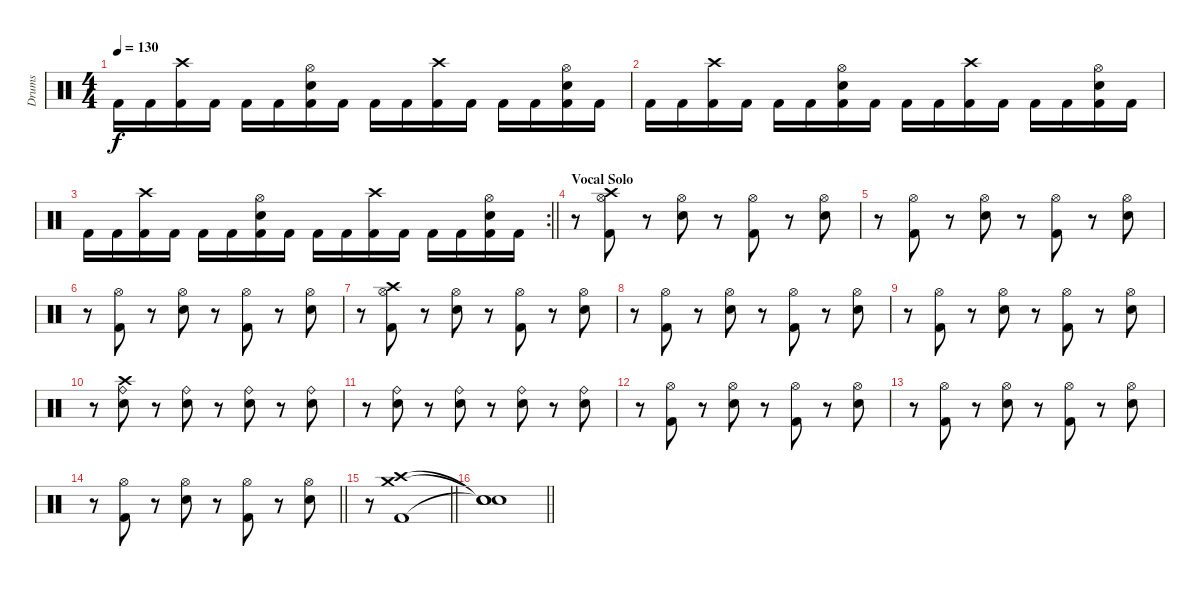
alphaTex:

\track ("Drums" "Drums") {instrument percussion}
\staff {score}
\articulation defaults
\ts (4 4)
\tempo 130
\clef neutral
\ks c "Kick (hit) 2".16{dy f} "Kick (hit) 2".16
("Crash high (hit)" "Kick (hit) 2").16 "Kick (hit) 2".16 "Kick (hit) 2".16 "Kick (hit) 2".16 ("Electric Snare (hit)" "Hi-Hat (open)" "Kick (hit) 2").16 "Kick (hit) 2".16 "Kick (hit) 2".16 "Kick (hit) 2".16 ("Crash high (hit)" "Kick (hit) 2").16 "Kick (hit) 2".16 "Kick (hit) 2".16 "Kick (hit) 2".16 ("Electric Snare (hit)" "Hi-Hat (open)" "Kick (hit) 2").16 "Kick (hit) 2".16 |
"Kick (hit) 2".16 "Kick (hit) 2".16 ("Crash high (hit)" "Kick (hit) 2").16 "Kick (hit) 2".16 "Kick (hit) 2".16 "Kick (hit) 2".16 ("Electric Snare (hit)" "Hi-Hat (open)" "Kick (hit) 2").16 "Kick (hit) 2".16 "Kick (hit) 2".16 "Kick (hit) 2".16 ("Crash high (hit)" "Kick (hit) 2").16 "Kick (hit) 2".16 "Kick (hit) 2".16 "Kick (hit) 2".16 ("Electric Snare (hit)" "Hi-Hat (open)" "Kick (hit) 2").16 "Kick (hit) 2".16 |
\rc 2
\barLineRight lightlight "Kick (hit) 2".16 "Kick (hit) 2".16
("Crash high (hit)" "Kick (hit) 2").16 "Kick (hit) 2".16 "Kick (hit) 2".16 "Kick (hit) 2".16 ("Electric Snare (hit)" "Hi-Hat (open)" "Kick (hit) 2").16 "Kick (hit) 2".16 "Kick (hit) 2".16 "Kick (hit) 2".16 ("Crash high (hit)" "Kick (hit) 2").16 "Kick (hit) 2".16 "Kick (hit) 2".16 "Kick (hit) 2".16 ("Electric Snare (hit)" "Hi-Hat (open)" "Kick (hit) 2").16 "Kick (hit) 2".16 |
\section ("" "Vocal Solo")
r.8 ("Kick (hit) 2" "Hi-Hat (open)" "Crash high (hit)").8 r.8 ("Snare (hit) 2" "Hi-Hat (open)").8 r.8 ("Kick (hit) 2" "Hi-Hat (open)").8 r.8 ("Snare (hit) 2" "Hi-Hat (open)").8 |
r.8 ("Kick (hit) 2" "Hi-Hat (open)").8 r.8 ("Snare (hit) 2" "Hi-Hat (open)").8 r.8 ("Kick (hit) 2" "Hi-Hat (open)").8 r.8 ("Snare (hit) 2" "Hi-Hat (open)").8 |
r.8 ("Kick (hit) 2" "Hi-Hat (open)").8 r.8 ("Snare (hit) 2" "Hi-Hat (open)").8 r.8 ("Kick (hit) 2" "Hi-Hat (open)").8 r.8 ("Snare (hit) 2" "Hi-Hat (open)").8 |
r.8 ("Kick (hit) 2" "Crash high (hit)" "Hi-Hat (open)").8 r.8 ("Snare (hit) 2" "Hi-Hat (open)").8 r.8 ("Kick (hit) 2" "Hi-Hat (open)").8 r.8 ("Snare (hit) 2" "Hi-Hat (open)").8 |
r.8 ("Kick (hit) 2" "Hi-Hat (open)").8 r.8 ("Snare (hit) 2" "Hi-Hat (open)").8 r.8 ("Kick (hit) 2" "Hi-Hat (open)").8 r.8 ("Snare (hit) 2" "Hi-Hat (open)").8 |
r.8 ("Kick (hit) 2" "Hi-Hat (open)").8 r.8 ("Snare (hit) 2" "Hi-Hat (open)").8 r.8 ("Kick (hit) 2" "Hi-Hat (open)").8 r.8 ("Snare (hit) 2" "Hi-Hat (open)").8 |
r.8 ("Snare (hit) 2" "Ride (bell)" "Crash high (hit)").8 r.8 ("Snare (hit) 2" "Ride (bell)").8 r.8 ("Snare (hit) 2" "Ride (bell)").8 r.8 ("Snare (hit) 2" "Ride (bell)").8 |
r.8 ("Snare (hit) 2" "Ride (bell)").8 r.8 ("Snare (hit) 2" "Ride (bell)").8 r.8 ("Snare (hit) 2" "Ride (bell)").8 r.8 ("Snare (hit) 2" "Ride (bell)").8 |
r.8 ("Kick (hit) 2" "Hi-Hat (open)").8 r.8 ("Snare (hit) 2" "Hi-Hat (open)").8 r.8 ("Kick (hit) 2" "Hi-Hat (open)").8 r.8 ("Snare (hit) 2" "Hi-Hat (open)").8 |
r.8 ("Kick (hit) 2" "Hi-Hat (open)").8 r.8 ("Snare (hit) 2" "Hi-Hat (open)").8 r.8 ("Kick (hit) 2" "Hi-Hat (open)").8 r.8 ("Snare (hit) 2" "Hi-Hat (open)").8 |
\barLineRight lightlight
r.8 ("Kick (hit) 2" "Hi-Hat (open)").8 r.8 ("Snare (hit) 2" "Hi-Hat (open)").8 r.8 ("Kick (hit) 2" "Hi-Hat (open)").8 r.8 ("Snare (hit) 2" "Hi-Hat (open)").8 |
\barLineRight lightlight
r.8 ("Crash medium (hit)" "Crash high (hit)" "Kick (hit) 2").1{volume 0} |
\barLineRight lightlight
("Snare (hit)"{t} "Snare (hit)"{t} "Snare (hit)"{t}).1
